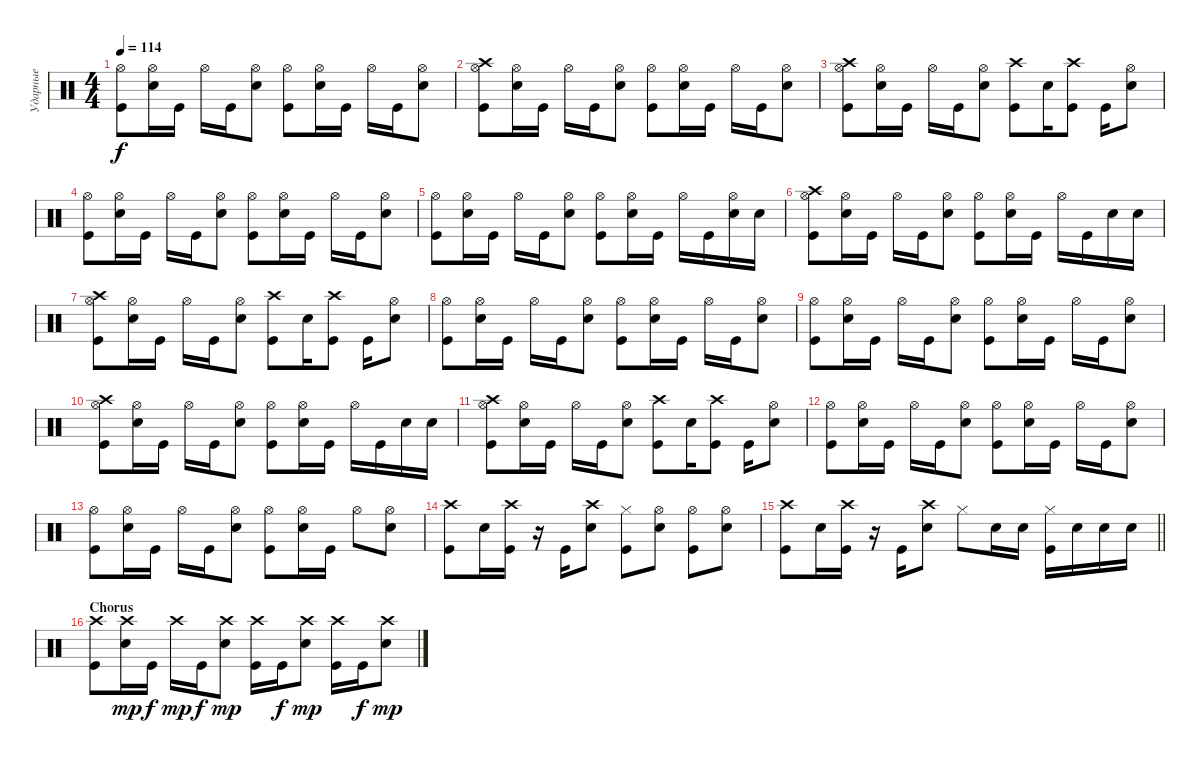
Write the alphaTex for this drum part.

\track ("Ударные" "Ударные") {instrument percussion}
\staff {score}
\articulation defaults
\ts (4 4)
\tempo 114
\clef neutral
\ks aminor
("Hi-Hat (open)" "Kick (hit)").8{dy f} ("Hi-Hat (open)" "Snare (hit) 2").16 "Kick (hit)".16 "Hi-Hat (open)".16 "Kick (hit)".16 ("Hi-Hat (open)" "Snare (hit) 2").8 ("Kick (hit)" "Hi-Hat (open)").8 ("Hi-Hat (open)" "Snare (hit) 2").16 "Kick (hit)".16 "Hi-Hat (open)".16 "Kick (hit)".16 ("Hi-Hat (open)" "Snare (hit) 2").8 |
("Hi-Hat (open)" "Crash high (hit)" "Kick (hit)").8 ("Hi-Hat (open)" "Snare (hit) 2").16 "Kick (hit)".16 "Hi-Hat (open)".16 "Kick (hit)".16 ("Hi-Hat (open)" "Snare (hit) 2").8 ("Kick (hit)" "Hi-Hat (open)").8 ("Hi-Hat (open)" "Snare (hit) 2").16 "Kick (hit)".16 "Hi-Hat (open)".16 "Kick (hit)".16 ("Hi-Hat (open)" "Snare (hit) 2").8 |
("Kick (hit)" "Crash high (hit)" "Hi-Hat (open)").8 ("Hi-Hat (open)" "Snare (hit) 2").16 "Kick (hit)".16 "Hi-Hat (open)".16 "Kick (hit)".16 ("Hi-Hat (open)" "Snare (hit) 2").8 ("Crash high (hit)" "Kick (hit)").8 "Snare (hit) 2".16 ("Crash high (hit)" "Kick (hit)").8 "Kick (hit)".16 ("Hi-Hat (open)" "Snare (hit) 2").8 |
("Hi-Hat (open)" "Kick (hit)").8 ("Hi-Hat (open)" "Snare (hit) 2").16 "Kick (hit)".16 "Hi-Hat (open)".16 "Kick (hit)".16 ("Hi-Hat (open)" "Snare (hit) 2").8 ("Kick (hit)" "Hi-Hat (open)").8 ("Hi-Hat (open)" "Snare (hit) 2").16 "Kick (hit)".16 "Hi-Hat (open)".16 "Kick (hit)".16 ("Hi-Hat (open)" "Snare (hit) 2").8 |
("Hi-Hat (open)" "Kick (hit)").8 ("Hi-Hat (open)" "Snare (hit) 2").16 "Kick (hit)".16 "Hi-Hat (open)".16 "Kick (hit)".16 ("Hi-Hat (open)" "Snare (hit) 2").8 ("Kick (hit)" "Hi-Hat (open)").8 ("Hi-Hat (open)" "Snare (hit) 2").16 "Kick (hit)".16 "Hi-Hat (open)".16 "Kick (hit)".16 ("Hi-Hat (open)" "Snare (hit) 2").16 "Snare (hit) 2".16 |
("Hi-Hat (open)" "Crash high (hit)" "Kick (hit)").8 ("Hi-Hat (open)" "Snare (hit) 2").16 "Kick (hit)".16 "Hi-Hat (open)".16 "Kick (hit)".16 ("Hi-Hat (open)" "Snare (hit) 2").8 ("Kick (hit)" "Hi-Hat (open)").8 ("Hi-Hat (open)" "Snare (hit) 2").16 "Kick (hit)".16 "Hi-Hat (open)".16 "Kick (hit)".16 "Snare (hit) 2".16 "Snare (hit) 2".16 |
("Kick (hit)" "Crash high (hit)" "Hi-Hat (open)").8 ("Hi-Hat (open)" "Snare (hit) 2").16 "Kick (hit)".16 "Hi-Hat (open)".16 "Kick (hit)".16 ("Hi-Hat (open)" "Snare (hit) 2").8 ("Crash high (hit)" "Kick (hit)").8 "Snare (hit) 2".16 ("Crash high (hit)" "Kick (hit)").8 "Kick (hit)".16 ("Hi-Hat (open)" "Snare (hit) 2").8 |
("Hi-Hat (open)" "Kick (hit)").8 ("Hi-Hat (open)" "Snare (hit) 2").16 "Kick (hit)".16 "Hi-Hat (open)".16 "Kick (hit)".16 ("Hi-Hat (open)" "Snare (hit) 2").8 ("Kick (hit)" "Hi-Hat (open)").8 ("Hi-Hat (open)" "Snare (hit) 2").16 "Kick (hit)".16 "Hi-Hat (open)".16 "Kick (hit)".16 ("Hi-Hat (open)" "Snare (hit) 2").8 |
("Hi-Hat (open)" "Kick (hit)").8 ("Hi-Hat (open)" "Snare (hit) 2").16 "Kick (hit)".16 "Hi-Hat (open)".16 "Kick (hit)".16 ("Hi-Hat (open)" "Snare (hit) 2").8 ("Kick (hit)" "Hi-Hat (open)").8 ("Hi-Hat (open)" "Snare (hit) 2").16 "Kick (hit)".16 "Hi-Hat (open)".16 "Kick (hit)".16 ("Hi-Hat (open)" "Snare (hit) 2").8 |
("Hi-Hat (open)" "Crash high (hit)" "Kick (hit)").8 ("Hi-Hat (open)" "Snare (hit) 2").16 "Kick (hit)".16 "Hi-Hat (open)".16 "Kick (hit)".16 ("Hi-Hat (open)" "Snare (hit) 2").8 ("Kick (hit)" "Hi-Hat (open)").8 ("Hi-Hat (open)" "Snare (hit) 2").16 "Kick (hit)".16 "Hi-Hat (open)".16 "Kick (hit)".16 "Snare (hit) 2".16 "Snare (hit) 2".16 |
("Kick (hit)" "Crash high (hit)" "Hi-Hat (open)").8 ("Hi-Hat (open)" "Snare (hit) 2").16 "Kick (hit)".16 "Hi-Hat (open)".16 "Kick (hit)".16 ("Hi-Hat (open)" "Snare (hit) 2").8 ("Crash high (hit)" "Kick (hit)").8 "Snare (hit) 2".16 ("Crash high (hit)" "Kick (hit)").8 "Kick (hit)".16 ("Hi-Hat (open)" "Snare (hit) 2").8 |
("Hi-Hat (open)" "Kick (hit)").8 ("Hi-Hat (open)" "Snare (hit) 2").16 "Kick (hit)".16 "Hi-Hat (open)".16 "Kick (hit)".16 ("Hi-Hat (open)" "Snare (hit) 2").8 ("Kick (hit)" "Hi-Hat (open)").8 ("Hi-Hat (open)" "Snare (hit) 2").16 "Kick (hit)".16 "Hi-Hat (open)".16 "Kick (hit)".16 ("Hi-Hat (open)" "Snare (hit) 2").8 |
("Hi-Hat (open)" "Kick (hit)").8 ("Hi-Hat (open)" "Snare (hit) 2").16 "Kick (hit)".16 "Hi-Hat (open)".16 "Kick (hit)".16 ("Hi-Hat (open)" "Snare (hit) 2").8 ("Kick (hit)" "Hi-Hat (open)").8 ("Hi-Hat (open)" "Snare (hit) 2").16 "Kick (hit)".16 "Hi-Hat (open)".8 ("Hi-Hat (open)" "Snare (hit) 2").8 |
("Crash high (hit)" "Kick (hit)").8 "Snare (hit) 2".16 ("Kick (hit)" "Crash high (hit)").16 r.16 "Kick (hit)".16 ("Crash high (hit)" "Snare (hit) 2").8 ("Kick (hit)" "Hi-Hat (closed)").8 ("Hi-Hat (open)" "Snare (hit) 2").8 ("Kick (hit)" "Hi-Hat (open)").8 ("Hi-Hat (open)" "Snare (hit) 2").8 |
\barLineRight lightlight
("Crash high (hit)" "Kick (hit)").8 "Snare (hit) 2".16 ("Kick (hit)" "Crash high (hit)").16 r.16 "Kick (hit)".16 ("Crash high (hit)" "Snare (hit) 2").8 "Hi-Hat (closed)".8 "Snare (hit) 2".16 "Snare (hit) 2".16 ("Hi-Hat (closed)" "Kick (hit)").16 "Snare (hit) 2".16 "Snare (hit) 2".16 "Snare (hit) 2".16 |
\section ("" "Chorus")
("Crash high (hit)" "Kick (hit)").8 ("Crash high (hit)" "Snare (hit) 2").16{dy mp} "Kick (hit)".16{dy f} "Crash high (hit)".16{dy mp} "Kick (hit)".16{dy f} ("Crash high (hit)" "Snare (hit) 2").8{dy mp} ("Kick (hit)" "Crash high (hit)").16 "Kick (hit)".16{dy f} ("Crash high (hit)" "Snare (hit) 2").8{dy mp} ("Kick (hit)" "Crash high (hit)").16 "Kick (hit)".16{dy f} ("Crash high (hit)" "Snare (hit) 2").8{dy mp}
